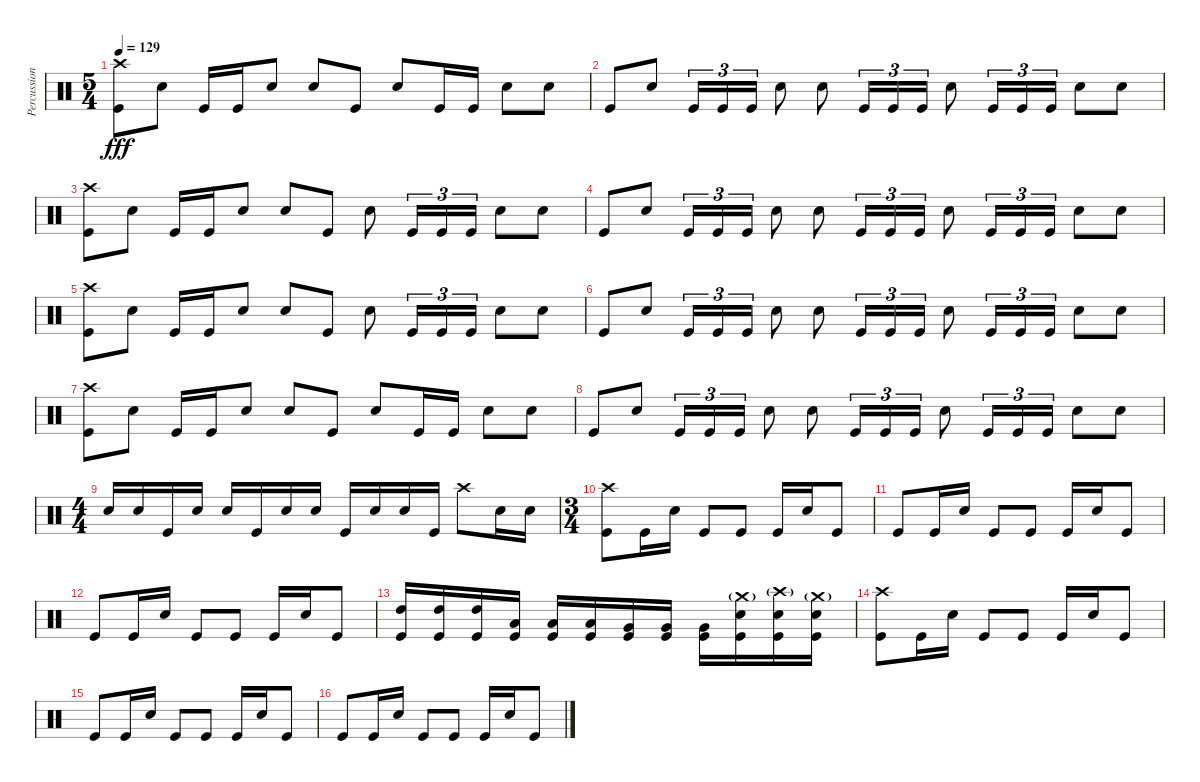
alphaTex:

\track ("Percussion" "Percussion") {instrument percussion}
\staff {score}
\articulation defaults
\ts (5 4)
\tempo 129
\clef neutral
\ks c
("Crash high (hit)" "Kick (hit)").8{dy fff} "Snare (hit) 2".8 "Kick (hit)".16 "Kick (hit)".16 "Snare (hit) 2".8 "Snare (hit) 2".8 "Kick (hit)".8 "Snare (hit) 2".8 "Kick (hit)".16 "Kick (hit)".16 "Snare (hit) 2".8 "Snare (hit) 2".8 |
"Kick (hit)".8 "Snare (hit) 2".8 "Kick (hit)".16{tu (3 2)} "Kick (hit)".16{tu (3 2)} "Kick (hit)".16{tu (3 2)} "Snare (hit) 2".8 "Snare (hit) 2".8 "Kick (hit)".16{tu (3 2)} "Kick (hit)".16{tu (3 2)} "Kick (hit)".16{tu (3 2)} "Snare (hit) 2".8 "Kick (hit)".16{tu (3 2)} "Kick (hit)".16{tu (3 2)} "Kick (hit)".16{tu (3 2)} "Snare (hit) 2".8 "Snare (hit) 2".8 |
("Crash high (hit)" "Kick (hit)").8 "Snare (hit) 2".8 "Kick (hit)".16 "Kick (hit)".16 "Snare (hit) 2".8 "Snare (hit) 2".8 "Kick (hit)".8 "Snare (hit) 2".8 "Kick (hit)".16{tu (3 2)} "Kick (hit)".16{tu (3 2)} "Kick (hit)".16{tu (3 2)} "Snare (hit) 2".8 "Snare (hit) 2".8 |
"Kick (hit)".8 "Snare (hit) 2".8 "Kick (hit)".16{tu (3 2)} "Kick (hit)".16{tu (3 2)} "Kick (hit)".16{tu (3 2)} "Snare (hit) 2".8 "Snare (hit) 2".8 "Kick (hit)".16{tu (3 2)} "Kick (hit)".16{tu (3 2)} "Kick (hit)".16{tu (3 2)} "Snare (hit) 2".8 "Kick (hit)".16{tu (3 2)} "Kick (hit)".16{tu (3 2)} "Kick (hit)".16{tu (3 2)} "Snare (hit) 2".8 "Snare (hit) 2".8 |
("Crash high (hit)" "Kick (hit)").8 "Snare (hit) 2".8 "Kick (hit)".16 "Kick (hit)".16 "Snare (hit) 2".8 "Snare (hit) 2".8 "Kick (hit)".8 "Snare (hit) 2".8 "Kick (hit)".16{tu (3 2)} "Kick (hit)".16{tu (3 2)} "Kick (hit)".16{tu (3 2)} "Snare (hit) 2".8 "Snare (hit) 2".8 |
"Kick (hit)".8 "Snare (hit) 2".8 "Kick (hit)".16{tu (3 2)} "Kick (hit)".16{tu (3 2)} "Kick (hit)".16{tu (3 2)} "Snare (hit) 2".8 "Snare (hit) 2".8 "Kick (hit)".16{tu (3 2)} "Kick (hit)".16{tu (3 2)} "Kick (hit)".16{tu (3 2)} "Snare (hit) 2".8 "Kick (hit)".16{tu (3 2)} "Kick (hit)".16{tu (3 2)} "Kick (hit)".16{tu (3 2)} "Snare (hit) 2".8 "Snare (hit) 2".8 |
("Crash high (hit)" "Kick (hit)").8 "Snare (hit) 2".8 "Kick (hit)".16 "Kick (hit)".16 "Snare (hit) 2".8 "Snare (hit) 2".8 "Kick (hit)".8 "Snare (hit) 2".8 "Kick (hit)".16 "Kick (hit)".16 "Snare (hit) 2".8 "Snare (hit) 2".8 |
"Kick (hit)".8 "Snare (hit) 2".8 "Kick (hit)".16{tu (3 2)} "Kick (hit)".16{tu (3 2)} "Kick (hit)".16{tu (3 2)} "Snare (hit) 2".8 "Snare (hit) 2".8 "Kick (hit)".16{tu (3 2)} "Kick (hit)".16{tu (3 2)} "Kick (hit)".16{tu (3 2)} "Snare (hit) 2".8 "Kick (hit)".16{tu (3 2)} "Kick (hit)".16{tu (3 2)} "Kick (hit)".16{tu (3 2)} "Snare (hit) 2".8 "Snare (hit) 2".8 |
\ts (4 4)
"Snare (hit) 2".16 "Snare (hit) 2".16 "Kick (hit)".16 "Snare (hit) 2".16 "Snare (hit) 2".16 "Kick (hit)".16 "Snare (hit) 2".16 "Snare (hit) 2".16 "Kick (hit)".16 "Snare (hit) 2".16 "Snare (hit) 2".16 "Kick (hit)".16 "Crash high (hit)".8 "Snare (hit) 2".16 "Snare (hit) 2".16 |
\ts (3 4)
("Crash high (hit)" "Kick (hit)").8 "Kick (hit)".16 "Snare (hit) 2".16 "Kick (hit)".8 "Kick (hit)".8 "Kick (hit)".16 "Snare (hit) 2".16 "Kick (hit)".8 |
"Kick (hit)".8 "Kick (hit)".16 "Snare (hit) 2".16 "Kick (hit)".8 "Kick (hit)".8 "Kick (hit)".16 "Snare (hit) 2".16 "Kick (hit)".8 |
"Kick (hit)".8 "Kick (hit)".16 "Snare (hit) 2".16 "Kick (hit)".8 "Kick (hit)".8 "Kick (hit)".16 "Snare (hit) 2".16 "Kick (hit)".8 |
("High Tom (hit)" "Kick (hit)").16 ("High Tom (hit)" "Kick (hit)").16 ("High Tom (hit)" "Kick (hit)").16 ("Low Tom (hit)" "Kick (hit)").16 ("Low Tom (hit)" "Kick (hit)").16 ("Low Tom (hit)" "Kick (hit)").16 ("Very Low Tom (hit)" "Kick (hit)").16 ("Very Low Tom (hit)" "Kick (hit)").16 ("Very Low Tom (hit)" "Kick (hit)").16 ("Snare (hit) 2" "Crash medium (hit)"{g} "Kick (hit)").16 ("Snare (hit) 2" "Crash high (hit)"{g} "Kick (hit)").16 ("Snare (hit) 2" "Crash medium (hit)"{g} "Kick (hit)").16 |
("Crash high (hit)" "Kick (hit)").8 "Kick (hit)".16 "Snare (hit) 2".16 "Kick (hit)".8 "Kick (hit)".8 "Kick (hit)".16 "Snare (hit) 2".16 "Kick (hit)".8 |
"Kick (hit)".8 "Kick (hit)".16 "Snare (hit) 2".16 "Kick (hit)".8 "Kick (hit)".8 "Kick (hit)".16 "Snare (hit) 2".16 "Kick (hit)".8 |
"Kick (hit)".8 "Kick (hit)".16 "Snare (hit) 2".16 "Kick (hit)".8 "Kick (hit)".8 "Kick (hit)".16 "Snare (hit) 2".16 "Kick (hit)".8
